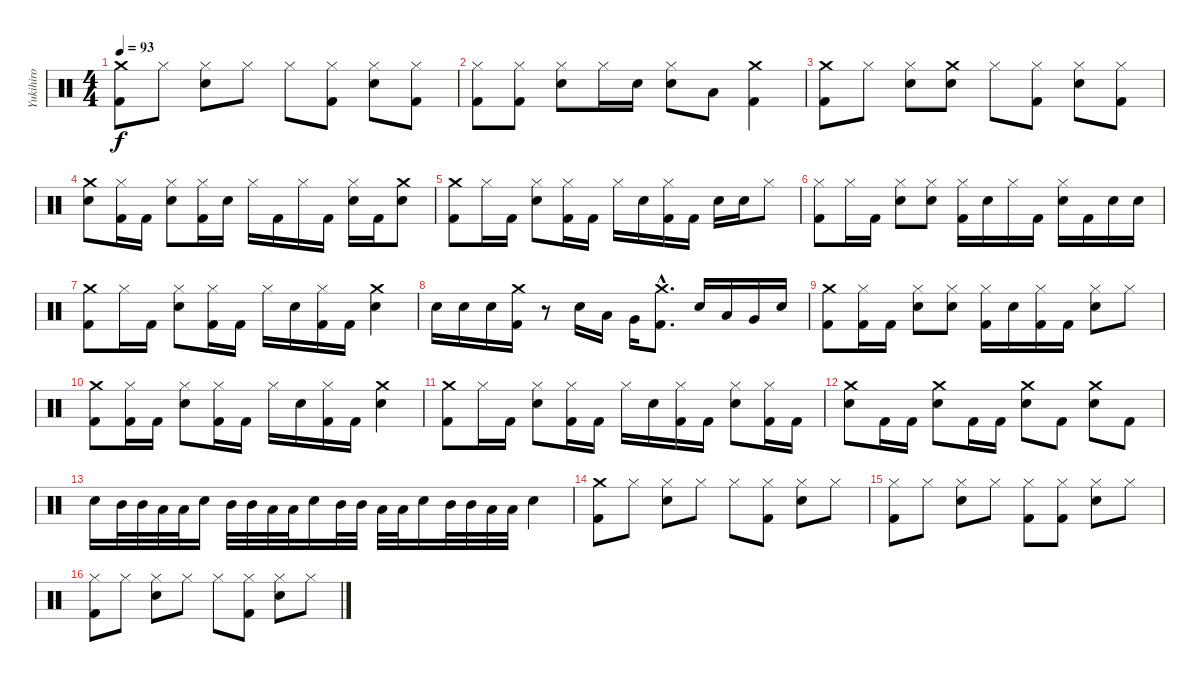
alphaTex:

\track ("Yukihiro" "Yukihiro") {instrument percussion}
\staff {score}
\articulation defaults
\ts (4 4)
\tempo 93
\clef neutral
\ks c
("Crash medium (hit)" "Kick (hit) 2").8{dy f} "Hi-Hat (closed)".8 ("Hi-Hat (closed)" "Snare (hit) 2").8 "Hi-Hat (closed)".8 "Hi-Hat (closed)".8 ("Hi-Hat (closed)" "Kick (hit) 2").8 ("Hi-Hat (closed)" "Snare (hit) 2").8 ("Hi-Hat (closed)" "Kick (hit) 2").8 |
("Hi-Hat (closed)" "Kick (hit) 2").8 ("Hi-Hat (closed)" "Kick (hit) 2").8 ("Hi-Hat (closed)" "Snare (hit) 2").8 "Hi-Hat (closed)".16 "Snare (hit) 2".16 ("Hi-Hat (closed)" "Snare (hit) 2").8 "Low Tom (hit)".8 ("Crash medium (hit)" "Kick (hit) 2").4 |
("Crash medium (hit)" "Kick (hit) 2").8 "Hi-Hat (closed)".8 ("Hi-Hat (closed)" "Snare (hit) 2").8 ("Crash medium (hit)" "Snare (hit) 2").8 "Hi-Hat (closed)".8 ("Hi-Hat (closed)" "Kick (hit) 2").8 ("Hi-Hat (closed)" "Snare (hit) 2").8 ("Hi-Hat (closed)" "Kick (hit) 2").8 |
("Crash medium (hit)" "Snare (hit) 2").8 ("Hi-Hat (closed)" "Kick (hit) 2").16 "Kick (hit) 2".16 ("Hi-Hat (closed)" "Snare (hit) 2").8 ("Hi-Hat (closed)" "Kick (hit) 2").16 "Snare (hit) 2".16 "Hi-Hat (closed)".16 "Kick (hit) 2".16 "Hi-Hat (closed)".16 "Kick (hit) 2".16 ("Hi-Hat (closed)" "Snare (hit) 2").16 "Kick (hit) 2".16 ("Crash medium (hit)" "Snare (hit) 2").8 |
("Crash medium (hit)" "Kick (hit) 2").8 "Hi-Hat (closed)".16 "Kick (hit) 2".16 ("Hi-Hat (closed)" "Snare (hit) 2").8 ("Hi-Hat (closed)" "Kick (hit) 2").16 "Kick (hit) 2".16 "Hi-Hat (closed)".16 "Snare (hit) 2".16 ("Hi-Hat (closed)" "Kick (hit) 2").16 "Kick (hit) 2".16 "Snare (hit) 2".16 "Snare (hit) 2".16 "Hi-Hat (closed)".8 |
("Hi-Hat (closed)" "Kick (hit) 2").8 "Hi-Hat (closed)".16 "Kick (hit) 2".16 ("Hi-Hat (closed)" "Snare (hit) 2").8 ("Hi-Hat (closed)" "Snare (hit) 2").8 ("Hi-Hat (closed)" "Kick (hit) 2").16 "Snare (hit) 2".16 "Hi-Hat (closed)".16 "Kick (hit) 2".16 ("Hi-Hat (closed)" "Snare (hit) 2").16 "Kick (hit) 2".16 "Snare (hit) 2".16 "Snare (hit) 2".16 |
("Crash medium (hit)" "Kick (hit) 2").8 "Hi-Hat (closed)".16 "Kick (hit) 2".16 ("Hi-Hat (closed)" "Snare (hit) 2").8 ("Hi-Hat (closed)" "Kick (hit) 2").16 "Kick (hit) 2".16 "Hi-Hat (closed)".16 "Snare (hit) 2".16 ("Hi-Hat (closed)" "Kick (hit) 2").16 "Kick (hit) 2".16 ("Crash medium (hit)" "Snare (hit) 2").4 |
"Snare (hit) 2".16 "Snare (hit) 2".16 "Snare (hit) 2".16 ("Crash medium (hit)" "Kick (hit) 2").16 r.8 "Snare (hit) 2".16 "Low Tom (hit)".16 "Very Low Tom (hit)".16 ("Crash medium (hit)"{hac} "Kick (hit) 2"{hac}).8{d} "Snare (hit) 2".16 "Low Tom (hit)".16 "Very Low Tom (hit)".16 "Snare (hit) 2".16 |
("Crash medium (hit)" "Kick (hit) 2").8 ("Hi-Hat (closed)" "Kick (hit) 2").16 "Kick (hit) 2".16 ("Hi-Hat (closed)" "Snare (hit) 2").8 ("Hi-Hat (closed)" "Snare (hit) 2").8 ("Hi-Hat (closed)" "Kick (hit) 2").16 "Snare (hit) 2".16 ("Hi-Hat (closed)" "Kick (hit) 2").16 "Kick (hit) 2".16 ("Hi-Hat (closed)" "Snare (hit) 2").8 "Hi-Hat (closed)".8 |
("Crash medium (hit)" "Kick (hit) 2").8 ("Hi-Hat (closed)" "Kick (hit) 2").16 "Kick (hit) 2".16 ("Hi-Hat (closed)" "Snare (hit) 2").8 ("Hi-Hat (closed)" "Kick (hit) 2").16 "Kick (hit) 2".16 "Hi-Hat (closed)".16 "Snare (hit) 2".16 ("Hi-Hat (closed)" "Kick (hit) 2").16 "Kick (hit) 2".16 ("Crash medium (hit)" "Snare (hit) 2").4 |
("Crash medium (hit)" "Kick (hit) 2").8 "Hi-Hat (closed)".16 "Kick (hit) 2".16 ("Hi-Hat (closed)" "Snare (hit) 2").8 ("Hi-Hat (closed)" "Kick (hit) 2").16 "Kick (hit) 2".16 "Hi-Hat (closed)".16 "Snare (hit) 2".16 ("Hi-Hat (closed)" "Kick (hit) 2").16 "Kick (hit) 2".16 ("Hi-Hat (closed)" "Snare (hit) 2").8 ("Hi-Hat (closed)" "Kick (hit) 2").16 "Kick (hit) 2".16 |
("Crash medium (hit)" "Snare (hit) 2").8 "Kick (hit) 2".16 "Kick (hit) 2".16 ("Crash medium (hit)" "Snare (hit) 2").8 "Kick (hit) 2".16 "Kick (hit) 2".16 ("Crash medium (hit)" "Snare (hit) 2").8 "Kick (hit) 2".8 ("Crash medium (hit)" "Snare (hit) 2").8 "Kick (hit) 2".8 |
"Snare (hit) 2".16 "Mid Tom (hit)".32 "Mid Tom (hit)".32 "Low Tom (hit)".32 "Low Tom (hit)".32 "Snare (hit) 2".16 "Mid Tom (hit)".32 "Mid Tom (hit)".32 "Low Tom (hit)".32 "Low Tom (hit)".32 "Snare (hit) 2".16 "Mid Tom (hit)".32 "Mid Tom (hit)".32 "Low Tom (hit)".32 "Low Tom (hit)".32 "Snare (hit) 2".16 "Mid Tom (hit)".32 "Mid Tom (hit)".32 "Low Tom (hit)".32 "Low Tom (hit)".32 "Snare (hit) 2".4 |
("Crash medium (hit)" "Kick (hit) 2").8 "Hi-Hat (closed)".8 ("Hi-Hat (closed)" "Snare (hit) 2").8 "Hi-Hat (closed)".8 "Hi-Hat (closed)".8 ("Hi-Hat (closed)" "Kick (hit) 2").8 ("Hi-Hat (closed)" "Snare (hit) 2").8 "Hi-Hat (closed)".8 |
("Hi-Hat (closed)" "Kick (hit) 2").8 "Hi-Hat (closed)".8 ("Hi-Hat (closed)" "Snare (hit) 2").8 "Hi-Hat (closed)".8 ("Hi-Hat (closed)" "Kick (hit) 2").8 ("Hi-Hat (closed)" "Kick (hit) 2").8 ("Hi-Hat (closed)" "Snare (hit) 2").8 "Hi-Hat (closed)".8 |
("Hi-Hat (closed)" "Kick (hit) 2").8 "Hi-Hat (closed)".8 ("Hi-Hat (closed)" "Snare (hit) 2").8 "Hi-Hat (closed)".8 "Hi-Hat (closed)".8 ("Hi-Hat (closed)" "Kick (hit) 2").8 ("Hi-Hat (closed)" "Snare (hit) 2").8 "Hi-Hat (closed)".8
